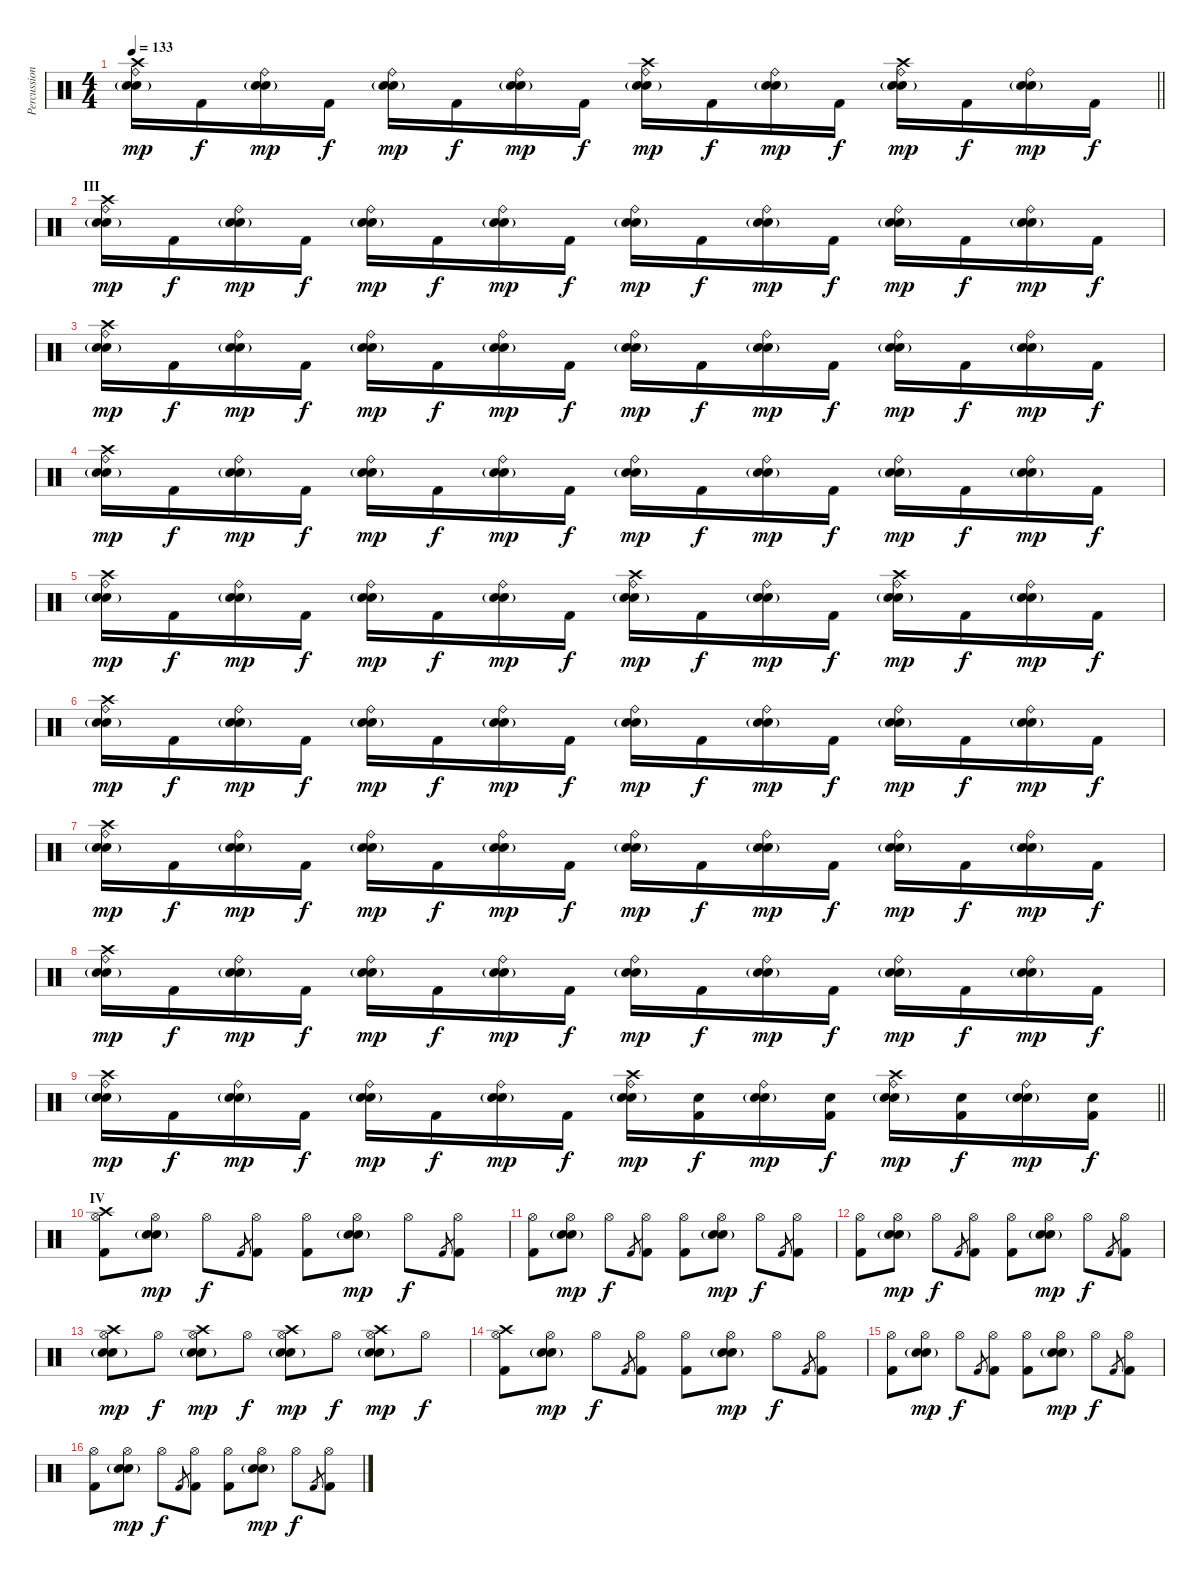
\track ("Percussion" "Percussion") {instrument percussion}
\staff {score}
\articulation defaults
\ts (4 4)
\tempo 133
\clef neutral
\barLineRight lightlight
\ks c
("Crash high (hit)" "Electric Snare (hit)" "Snare (hit) 2"{g} "Ride (bell)").16{dy mp} "Kick (hit) 2".16{dy f} ("Electric Snare (hit)" "Snare (hit) 2"{g} "Ride (bell)").16{dy mp} "Kick (hit) 2".16{dy f} ("Electric Snare (hit)" "Snare (hit) 2"{g} "Ride (bell)").16{dy mp} "Kick (hit) 2".16{dy f} ("Electric Snare (hit)" "Snare (hit) 2"{g} "Ride (bell)").16{dy mp} "Kick (hit) 2".16{dy f} ("Crash high (hit)" "Electric Snare (hit)" "Snare (hit) 2"{g} "Ride (bell)").16{dy mp} "Kick (hit) 2".16{dy f} ("Electric Snare (hit)" "Snare (hit) 2"{g} "Ride (bell)").16{dy mp} "Kick (hit) 2".16{dy f} ("Crash high (hit)" "Electric Snare (hit)" "Snare (hit) 2"{g} "Ride (bell)").16{dy mp} "Kick (hit) 2".16{dy f} ("Electric Snare (hit)" "Snare (hit) 2"{g} "Ride (bell)").16{dy mp} "Kick (hit) 2".16{dy f} |
\section ("" "III")
("Crash high (hit)" "Electric Snare (hit)" "Snare (hit) 2"{g} "Ride (bell)").16{dy mp} "Kick (hit) 2".16{dy f} ("Electric Snare (hit)" "Snare (hit) 2"{g} "Ride (bell)").16{dy mp} "Kick (hit) 2".16{dy f} ("Electric Snare (hit)" "Snare (hit) 2"{g} "Ride (bell)").16{dy mp} "Kick (hit) 2".16{dy f} ("Electric Snare (hit)" "Snare (hit) 2"{g} "Ride (bell)").16{dy mp} "Kick (hit) 2".16{dy f} ("Electric Snare (hit)" "Snare (hit) 2"{g} "Ride (bell)").16{dy mp} "Kick (hit) 2".16{dy f} ("Electric Snare (hit)" "Snare (hit) 2"{g} "Ride (bell)").16{dy mp} "Kick (hit) 2".16{dy f} ("Electric Snare (hit)" "Snare (hit) 2"{g} "Ride (bell)").16{dy mp} "Kick (hit) 2".16{dy f} ("Electric Snare (hit)" "Snare (hit) 2"{g} "Ride (bell)").16{dy mp} "Kick (hit) 2".16{dy f} |
("Crash high (hit)" "Electric Snare (hit)" "Snare (hit) 2"{g} "Ride (bell)").16{dy mp} "Kick (hit) 2".16{dy f} ("Electric Snare (hit)" "Snare (hit) 2"{g} "Ride (bell)").16{dy mp} "Kick (hit) 2".16{dy f} ("Electric Snare (hit)" "Snare (hit) 2"{g} "Ride (bell)").16{dy mp} "Kick (hit) 2".16{dy f} ("Electric Snare (hit)" "Snare (hit) 2"{g} "Ride (bell)").16{dy mp} "Kick (hit) 2".16{dy f} ("Electric Snare (hit)" "Snare (hit) 2"{g} "Ride (bell)").16{dy mp} "Kick (hit) 2".16{dy f} ("Electric Snare (hit)" "Snare (hit) 2"{g} "Ride (bell)").16{dy mp} "Kick (hit) 2".16{dy f} ("Electric Snare (hit)" "Snare (hit) 2"{g} "Ride (bell)").16{dy mp} "Kick (hit) 2".16{dy f} ("Electric Snare (hit)" "Snare (hit) 2"{g} "Ride (bell)").16{dy mp} "Kick (hit) 2".16{dy f} |
("Crash high (hit)" "Electric Snare (hit)" "Snare (hit) 2"{g} "Ride (bell)").16{dy mp} "Kick (hit) 2".16{dy f} ("Electric Snare (hit)" "Snare (hit) 2"{g} "Ride (bell)").16{dy mp} "Kick (hit) 2".16{dy f} ("Electric Snare (hit)" "Snare (hit) 2"{g} "Ride (bell)").16{dy mp} "Kick (hit) 2".16{dy f} ("Electric Snare (hit)" "Snare (hit) 2"{g} "Ride (bell)").16{dy mp} "Kick (hit) 2".16{dy f} ("Electric Snare (hit)" "Snare (hit) 2"{g} "Ride (bell)").16{dy mp} "Kick (hit) 2".16{dy f} ("Electric Snare (hit)" "Snare (hit) 2"{g} "Ride (bell)").16{dy mp} "Kick (hit) 2".16{dy f} ("Electric Snare (hit)" "Snare (hit) 2"{g} "Ride (bell)").16{dy mp} "Kick (hit) 2".16{dy f} ("Electric Snare (hit)" "Snare (hit) 2"{g} "Ride (bell)").16{dy mp} "Kick (hit) 2".16{dy f} |
("Crash high (hit)" "Electric Snare (hit)" "Snare (hit) 2"{g} "Ride (bell)").16{dy mp} "Kick (hit) 2".16{dy f} ("Electric Snare (hit)" "Snare (hit) 2"{g} "Ride (bell)").16{dy mp} "Kick (hit) 2".16{dy f} ("Electric Snare (hit)" "Snare (hit) 2"{g} "Ride (bell)").16{dy mp} "Kick (hit) 2".16{dy f} ("Electric Snare (hit)" "Snare (hit) 2"{g} "Ride (bell)").16{dy mp} "Kick (hit) 2".16{dy f} ("Crash high (hit)" "Electric Snare (hit)" "Snare (hit) 2"{g} "Ride (bell)").16{dy mp} "Kick (hit) 2".16{dy f} ("Electric Snare (hit)" "Snare (hit) 2"{g} "Ride (bell)").16{dy mp} "Kick (hit) 2".16{dy f} ("Crash high (hit)" "Electric Snare (hit)" "Snare (hit) 2"{g} "Ride (bell)").16{dy mp} "Kick (hit) 2".16{dy f} ("Electric Snare (hit)" "Snare (hit) 2"{g} "Ride (bell)").16{dy mp} "Kick (hit) 2".16{dy f} |
("Crash high (hit)" "Electric Snare (hit)" "Snare (hit) 2"{g} "Ride (bell)").16{dy mp} "Kick (hit) 2".16{dy f} ("Electric Snare (hit)" "Snare (hit) 2"{g} "Ride (bell)").16{dy mp} "Kick (hit) 2".16{dy f} ("Electric Snare (hit)" "Snare (hit) 2"{g} "Ride (bell)").16{dy mp} "Kick (hit) 2".16{dy f} ("Electric Snare (hit)" "Snare (hit) 2"{g} "Ride (bell)").16{dy mp} "Kick (hit) 2".16{dy f} ("Electric Snare (hit)" "Snare (hit) 2"{g} "Ride (bell)").16{dy mp} "Kick (hit) 2".16{dy f} ("Electric Snare (hit)" "Snare (hit) 2"{g} "Ride (bell)").16{dy mp} "Kick (hit) 2".16{dy f} ("Electric Snare (hit)" "Snare (hit) 2"{g} "Ride (bell)").16{dy mp} "Kick (hit) 2".16{dy f} ("Electric Snare (hit)" "Snare (hit) 2"{g} "Ride (bell)").16{dy mp} "Kick (hit) 2".16{dy f} |
("Crash high (hit)" "Electric Snare (hit)" "Snare (hit) 2"{g} "Ride (bell)").16{dy mp} "Kick (hit) 2".16{dy f} ("Electric Snare (hit)" "Snare (hit) 2"{g} "Ride (bell)").16{dy mp} "Kick (hit) 2".16{dy f} ("Electric Snare (hit)" "Snare (hit) 2"{g} "Ride (bell)").16{dy mp} "Kick (hit) 2".16{dy f} ("Electric Snare (hit)" "Snare (hit) 2"{g} "Ride (bell)").16{dy mp} "Kick (hit) 2".16{dy f} ("Electric Snare (hit)" "Snare (hit) 2"{g} "Ride (bell)").16{dy mp} "Kick (hit) 2".16{dy f} ("Electric Snare (hit)" "Snare (hit) 2"{g} "Ride (bell)").16{dy mp} "Kick (hit) 2".16{dy f} ("Electric Snare (hit)" "Snare (hit) 2"{g} "Ride (bell)").16{dy mp} "Kick (hit) 2".16{dy f} ("Electric Snare (hit)" "Snare (hit) 2"{g} "Ride (bell)").16{dy mp} "Kick (hit) 2".16{dy f} |
("Crash high (hit)" "Electric Snare (hit)" "Snare (hit) 2"{g} "Ride (bell)").16{dy mp} "Kick (hit) 2".16{dy f} ("Electric Snare (hit)" "Snare (hit) 2"{g} "Ride (bell)").16{dy mp} "Kick (hit) 2".16{dy f} ("Electric Snare (hit)" "Snare (hit) 2"{g} "Ride (bell)").16{dy mp} "Kick (hit) 2".16{dy f} ("Electric Snare (hit)" "Snare (hit) 2"{g} "Ride (bell)").16{dy mp} "Kick (hit) 2".16{dy f} ("Electric Snare (hit)" "Snare (hit) 2"{g} "Ride (bell)").16{dy mp} "Kick (hit) 2".16{dy f} ("Electric Snare (hit)" "Snare (hit) 2"{g} "Ride (bell)").16{dy mp} "Kick (hit) 2".16{dy f} ("Electric Snare (hit)" "Snare (hit) 2"{g} "Ride (bell)").16{dy mp} "Kick (hit) 2".16{dy f} ("Electric Snare (hit)" "Snare (hit) 2"{g} "Ride (bell)").16{dy mp} "Kick (hit) 2".16{dy f} |
\barLineRight lightlight
("Crash high (hit)" "Electric Snare (hit)" "Snare (hit) 2"{g} "Ride (bell)").16{dy mp} "Kick (hit) 2".16{dy f} ("Electric Snare (hit)" "Snare (hit) 2"{g} "Ride (bell)").16{dy mp} "Kick (hit) 2".16{dy f} ("Electric Snare (hit)" "Snare (hit) 2"{g} "Ride (bell)").16{dy mp} "Kick (hit) 2".16{dy f} ("Electric Snare (hit)" "Snare (hit) 2"{g} "Ride (bell)").16{dy mp} "Kick (hit) 2".16{dy f} ("Crash high (hit)" "Electric Snare (hit)" "Snare (hit) 2"{g} "Ride (bell)").16{dy mp} ("Electric Snare (hit)" "Kick (hit) 2").16{dy f} ("Electric Snare (hit)" "Snare (hit) 2"{g} "Ride (bell)").16{dy mp} ("Electric Snare (hit)" "Kick (hit) 2").16{dy f} ("Crash high (hit)" "Electric Snare (hit)" "Snare (hit) 2"{g} "Ride (bell)").16{dy mp} ("Electric Snare (hit)" "Kick (hit) 2").16{dy f} ("Electric Snare (hit)" "Snare (hit) 2"{g} "Ride (bell)").16{dy mp} ("Electric Snare (hit)" "Kick (hit) 2").16{dy f} |
\section ("" "IV")
("Crash high (hit)" "Kick (hit) 2" "Hi-Hat (open)").8 ("Electric Snare (hit)" "Snare (hit) 2"{g} "Hi-Hat (open)").8{dy mp} "Hi-Hat (open)".8{dy f} "Kick (hit) 2".8{gr} ("Kick (hit) 2" "Hi-Hat (open)").8 ("Kick (hit) 2" "Hi-Hat (open)").8 ("Electric Snare (hit)" "Snare (hit) 2"{g} "Hi-Hat (open)").8{dy mp} "Hi-Hat (open)".8{dy f} "Kick (hit) 2".8{gr} ("Kick (hit) 2" "Hi-Hat (open)").8 |
("Kick (hit) 2" "Hi-Hat (open)").8 ("Electric Snare (hit)" "Snare (hit) 2"{g} "Hi-Hat (open)").8{dy mp} "Hi-Hat (open)".8{dy f} "Kick (hit) 2".8{gr} ("Kick (hit) 2" "Hi-Hat (open)").8 ("Kick (hit) 2" "Hi-Hat (open)").8 ("Electric Snare (hit)" "Snare (hit) 2"{g} "Hi-Hat (open)").8{dy mp} "Hi-Hat (open)".8{dy f} "Kick (hit) 2".8{gr} ("Kick (hit) 2" "Hi-Hat (open)").8 |
("Kick (hit) 2" "Hi-Hat (open)").8 ("Electric Snare (hit)" "Snare (hit) 2"{g} "Hi-Hat (open)").8{dy mp} "Hi-Hat (open)".8{dy f} "Kick (hit) 2".8{gr} ("Kick (hit) 2" "Hi-Hat (open)").8 ("Kick (hit) 2" "Hi-Hat (open)").8 ("Electric Snare (hit)" "Snare (hit) 2"{g} "Hi-Hat (open)").8{dy mp} "Hi-Hat (open)".8{dy f} "Kick (hit) 2".8{gr} ("Kick (hit) 2" "Hi-Hat (open)").8 |
("Crash high (hit)" "Electric Snare (hit)" "Snare (hit) 2"{g} "Hi-Hat (open)").8{dy mp} "Hi-Hat (open)".8{dy f} ("Crash high (hit)" "Electric Snare (hit)" "Snare (hit) 2"{g} "Hi-Hat (open)").8{dy mp} "Hi-Hat (open)".8{dy f} ("Crash high (hit)" "Electric Snare (hit)" "Snare (hit) 2"{g} "Hi-Hat (open)").8{dy mp} "Hi-Hat (open)".8{dy f} ("Crash high (hit)" "Electric Snare (hit)" "Snare (hit) 2"{g} "Hi-Hat (open)").8{dy mp} "Hi-Hat (open)".8{dy f} |
("Crash high (hit)" "Kick (hit) 2" "Hi-Hat (open)").8 ("Electric Snare (hit)" "Snare (hit) 2"{g} "Hi-Hat (open)").8{dy mp} "Hi-Hat (open)".8{dy f} "Kick (hit) 2".8{gr} ("Kick (hit) 2" "Hi-Hat (open)").8 ("Kick (hit) 2" "Hi-Hat (open)").8 ("Electric Snare (hit)" "Snare (hit) 2"{g} "Hi-Hat (open)").8{dy mp} "Hi-Hat (open)".8{dy f} "Kick (hit) 2".8{gr} ("Kick (hit) 2" "Hi-Hat (open)").8 |
("Kick (hit) 2" "Hi-Hat (open)").8 ("Electric Snare (hit)" "Snare (hit) 2"{g} "Hi-Hat (open)").8{dy mp} "Hi-Hat (open)".8{dy f} "Kick (hit) 2".8{gr} ("Kick (hit) 2" "Hi-Hat (open)").8 ("Kick (hit) 2" "Hi-Hat (open)").8 ("Electric Snare (hit)" "Snare (hit) 2"{g} "Hi-Hat (open)").8{dy mp} "Hi-Hat (open)".8{dy f} "Kick (hit) 2".8{gr} ("Kick (hit) 2" "Hi-Hat (open)").8 |
("Kick (hit) 2" "Hi-Hat (open)").8 ("Electric Snare (hit)" "Snare (hit) 2"{g} "Hi-Hat (open)").8{dy mp} "Hi-Hat (open)".8{dy f} "Kick (hit) 2".8{gr} ("Kick (hit) 2" "Hi-Hat (open)").8 ("Kick (hit) 2" "Hi-Hat (open)").8 ("Electric Snare (hit)" "Snare (hit) 2"{g} "Hi-Hat (open)").8{dy mp} "Hi-Hat (open)".8{dy f} "Kick (hit) 2".8{gr} ("Kick (hit) 2" "Hi-Hat (open)").8
